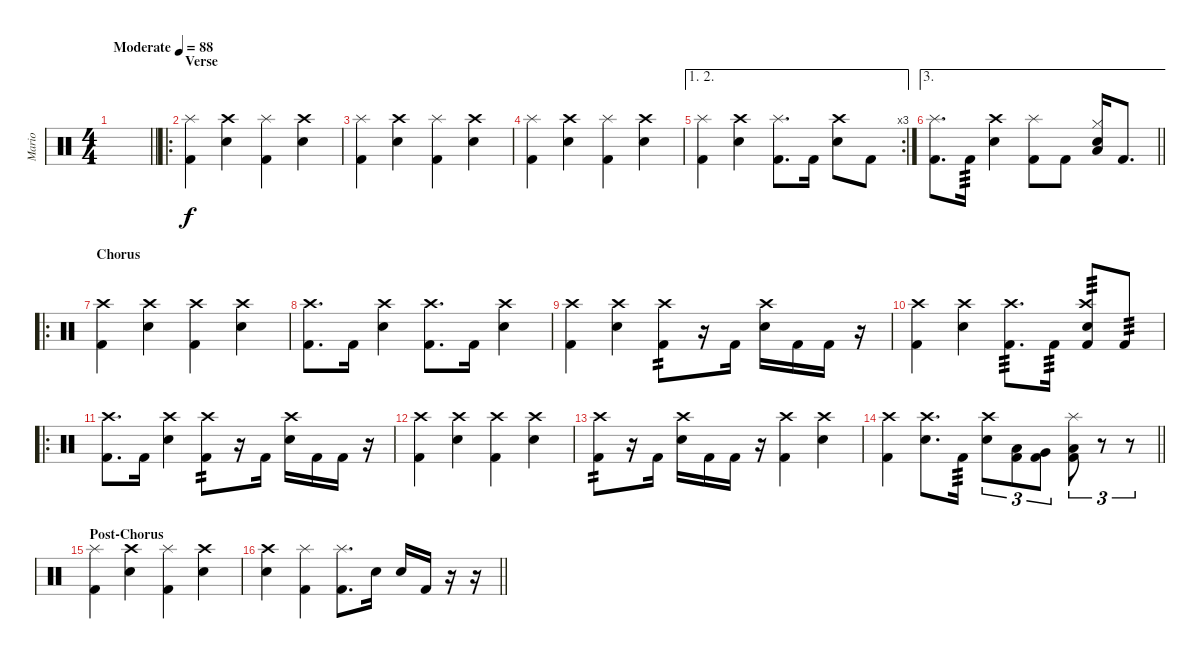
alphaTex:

\track ("Mario" "Mario") {instrument percussion}
\staff {score}
\articulation defaults
\ts (4 4)
\tempo (88 "Moderate")
\clef neutral
\barLineRight lightlight
\ks c
|
\ro
\section ("" "Verse")
("Splash (hit)" "Kick (hit) 2").4 ("Crash high (hit)" "Electric Snare (hit)").4 ("Splash (hit)" "Kick (hit) 2").4 ("Crash high (hit)" "Electric Snare (hit)").4 |
("Splash (hit)" "Kick (hit) 2").4 ("Crash high (hit)" "Electric Snare (hit)").4 ("Splash (hit)" "Kick (hit) 2").4 ("Crash high (hit)" "Electric Snare (hit)").4 |
("Splash (hit)" "Kick (hit) 2").4 ("Crash high (hit)" "Electric Snare (hit)").4 ("Splash (hit)" "Kick (hit) 2").4 ("Crash high (hit)" "Electric Snare (hit)").4 |
\ae (1 2)
\rc 3
("Splash (hit)" "Kick (hit) 2").4 ("Crash high (hit)" "Electric Snare (hit)").4 ("Splash (hit)" "Kick (hit) 2").8{d} "Kick (hit) 2".16 ("Crash high (hit)" "Electric Snare (hit)").8 "Kick (hit) 2".8 |
\ae 3
\barLineRight lightlight
("Splash (hit)" "Kick (hit) 2").8{d} "Kick (hit) 2".16{tp 3} ("Crash high (hit)" "Electric Snare (hit)").4 ("Splash (hit)" "Kick (hit) 2").8 "Kick (hit) 2".8 ("Hi-Hat (closed)" "Low Floor Tom (hit)" "Electric Snare (hit)").16 "Kick (hit) 2".8{d} |
\ro
\section ("" "Chorus")
("Crash high (hit)" "Kick (hit) 2").4 ("Crash high (hit)" "Electric Snare (hit)").4 ("Crash high (hit)" "Kick (hit) 2").4 ("Crash high (hit)" "Electric Snare (hit)").4 |
("Crash high (hit)" "Kick (hit) 2").8{d} "Kick (hit) 2".16 ("Crash high (hit)" "Electric Snare (hit)").4 ("Crash high (hit)" "Kick (hit) 2").8{d} "Kick (hit) 2".16 ("Crash high (hit)" "Electric Snare (hit)").4 |
("Crash high (hit)" "Kick (hit) 2").4 ("Crash high (hit)" "Electric Snare (hit)").4 ("Crash high (hit)" "Kick (hit) 2").8{tp 2} r.16 "Kick (hit) 2".16 ("Crash high (hit)" "Electric Snare (hit)").16 "Kick (hit) 2".16 "Kick (hit) 2".16 r.16 |
("Crash high (hit)" "Kick (hit) 2").4 ("Crash high (hit)" "Electric Snare (hit)").4 ("Crash high (hit)" "Kick (hit) 2").8{d tp 3} "Kick (hit) 2".16{tp 3} ("Crash high (hit)" "Electric Snare (hit)" "Kick (hit) 2").8{tp 3} "Kick (hit) 2".8{tp 3} |
\ro
("Crash high (hit)" "Kick (hit) 2").8{d} "Kick (hit) 2".16 ("Crash high (hit)" "Electric Snare (hit)").4 ("Crash high (hit)" "Kick (hit) 2").8{tp 2} r.16 "Kick (hit) 2".16 ("Crash high (hit)" "Electric Snare (hit)").16 "Kick (hit) 2".16 "Kick (hit) 2".16 r.16 |
("Crash high (hit)" "Kick (hit) 2").4 ("Crash high (hit)" "Electric Snare (hit)").4 ("Crash high (hit)" "Kick (hit) 2").4 ("Crash high (hit)" "Electric Snare (hit)").4 |
("Crash high (hit)" "Kick (hit) 2").8{tp 2} r.16 "Kick (hit) 2".16 ("Crash high (hit)" "Electric Snare (hit)").16 "Kick (hit) 2".16 "Kick (hit) 2".16 r.16 ("Crash high (hit)" "Kick (hit) 2").4 ("Crash high (hit)" "Electric Snare (hit)").4 |
\barLineRight lightlight
("Crash high (hit)" "Kick (hit) 2").4 ("Crash high (hit)" "Electric Snare (hit)").8{d} "Kick (hit) 2".16{tp 3} ("Crash high (hit)" "Electric Snare (hit)").8{tu (3 2)} ("Low Tom (hit)" "Kick (hit) 2").8{tu (3 2)} ("Very Low Tom (hit)" "Kick (hit) 2").8{tu (3 2)} ("Splash (hit)" "Low Floor Tom (hit)" "Kick (hit) 2").8{tu (3 2)} r.8{tu (3 2)} r.8{tu (3 2)} |
\section ("" "Post-Chorus")
("Splash (hit)" "Kick (hit) 2").4 ("Crash high (hit)" "Electric Snare (hit)").4 ("Splash (hit)" "Kick (hit) 2").4 ("Crash high (hit)" "Electric Snare (hit)").4 |
\barLineRight lightlight
("Crash high (hit)" "Electric Snare (hit)").4 ("Splash (hit)" "Kick (hit) 2").4 ("Splash (hit)" "Kick (hit) 2").8{d} "Electric Snare (hit)".16 "Electric Snare (hit)".16 "Kick (hit) 2".16 r.16 r.16
